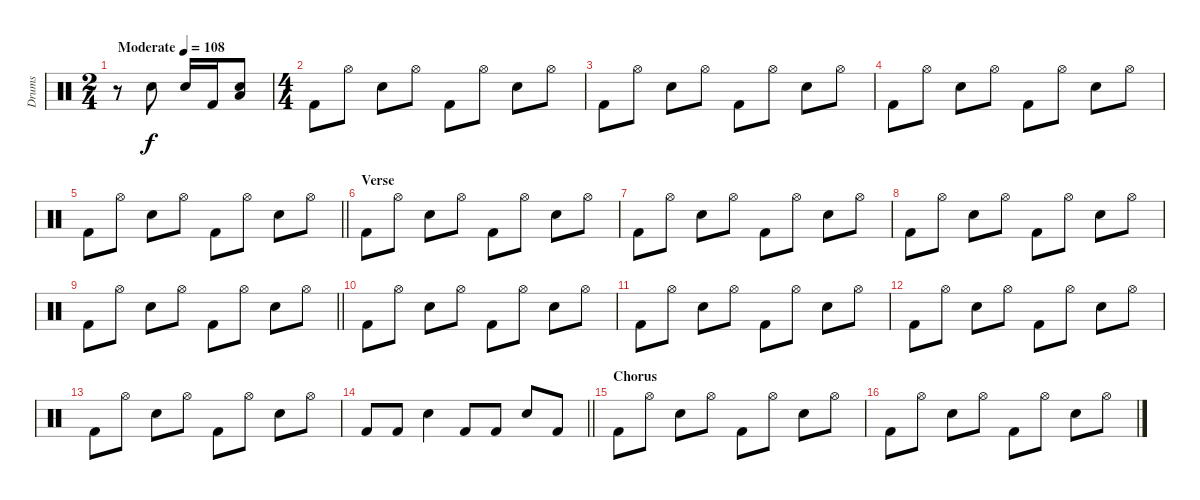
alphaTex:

\track ("Drums" "Drums") {instrument percussion}
\staff {score}
\articulation defaults
\ts (2 4)
\tempo (108 "Moderate")
\clef neutral
\ks c
r.8{dy f} "Snare (hit) 2".8 "Snare (hit) 2".16 "Kick (hit) 2".16 ("Snare (hit) 2" "Low Floor Tom (hit)").8 |
\ts (4 4)
"Kick (hit) 2".8 "Hi-Hat (open)".8 "Snare (hit) 2".8 "Hi-Hat (open)".8 "Kick (hit) 2".8 "Hi-Hat (open)".8 "Snare (hit) 2".8 "Hi-Hat (open)".8 |
"Kick (hit) 2".8 "Hi-Hat (open)".8 "Snare (hit) 2".8 "Hi-Hat (open)".8 "Kick (hit) 2".8 "Hi-Hat (open)".8 "Snare (hit) 2".8 "Hi-Hat (open)".8 |
"Kick (hit) 2".8 "Hi-Hat (open)".8 "Snare (hit) 2".8 "Hi-Hat (open)".8 "Kick (hit) 2".8 "Hi-Hat (open)".8 "Snare (hit) 2".8 "Hi-Hat (open)".8 |
\barLineRight lightlight "Kick (hit) 2".8 "Hi-Hat (open)".8 "Snare (hit) 2".8 "Hi-Hat (open)".8 "Kick (hit) 2".8 "Hi-Hat (open)".8 "Snare (hit) 2".8 "Hi-Hat (open)".8
|
\section ("" "Verse")
"Kick (hit) 2".8 "Hi-Hat (open)".8 "Snare (hit) 2".8 "Hi-Hat (open)".8 "Kick (hit) 2".8 "Hi-Hat (open)".8 "Snare (hit) 2".8 "Hi-Hat (open)".8 |
"Kick (hit) 2".8 "Hi-Hat (open)".8 "Snare (hit) 2".8 "Hi-Hat (open)".8 "Kick (hit) 2".8 "Hi-Hat (open)".8 "Snare (hit) 2".8 "Hi-Hat (open)".8 |
"Kick (hit) 2".8 "Hi-Hat (open)".8 "Snare (hit) 2".8 "Hi-Hat (open)".8 "Kick (hit) 2".8 "Hi-Hat (open)".8 "Snare (hit) 2".8 "Hi-Hat (open)".8 |
\barLineRight lightlight "Kick (hit) 2".8 "Hi-Hat (open)".8 "Snare (hit) 2".8 "Hi-Hat (open)".8 "Kick (hit) 2".8 "Hi-Hat (open)".8 "Snare (hit) 2".8 "Hi-Hat (open)".8
|
"Kick (hit) 2".8 "Hi-Hat (open)".8 "Snare (hit) 2".8 "Hi-Hat (open)".8 "Kick (hit) 2".8 "Hi-Hat (open)".8 "Snare (hit) 2".8 "Hi-Hat (open)".8 |
"Kick (hit) 2".8 "Hi-Hat (open)".8 "Snare (hit) 2".8 "Hi-Hat (open)".8 "Kick (hit) 2".8 "Hi-Hat (open)".8 "Snare (hit) 2".8 "Hi-Hat (open)".8 |
"Kick (hit) 2".8 "Hi-Hat (open)".8 "Snare (hit) 2".8 "Hi-Hat (open)".8 "Kick (hit) 2".8 "Hi-Hat (open)".8 "Snare (hit) 2".8 "Hi-Hat (open)".8 |
"Kick (hit) 2".8 "Hi-Hat (open)".8 "Snare (hit) 2".8 "Hi-Hat (open)".8 "Kick (hit) 2".8 "Hi-Hat (open)".8 "Snare (hit) 2".8 "Hi-Hat (open)".8 |
\barLineRight lightlight "Kick (hit) 2".8 "Kick (hit) 2".8 "Snare (hit) 2".4 "Kick (hit) 2".8 "Kick (hit) 2".8 "Snare (hit) 2".8 "Kick (hit) 2".8
|
\section ("" "Chorus")
"Kick (hit) 2".8 "Hi-Hat (open)".8 "Snare (hit) 2".8 "Hi-Hat (open)".8 "Kick (hit) 2".8 "Hi-Hat (open)".8 "Snare (hit) 2".8 "Hi-Hat (open)".8 |
"Kick (hit) 2".8 "Hi-Hat (open)".8 "Snare (hit) 2".8 "Hi-Hat (open)".8 "Kick (hit) 2".8 "Hi-Hat (open)".8 "Snare (hit) 2".8 "Hi-Hat (open)".8
